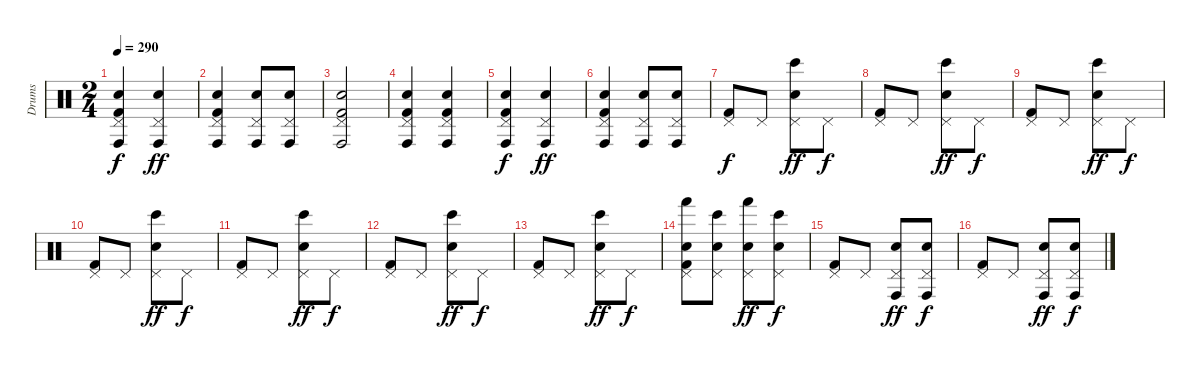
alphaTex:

\track ("Drums" "Drums") {instrument percussion}
\staff {score}
\articulation defaults
\ts (2 4)
\tempo 290
\clef neutral
\ks c
("Pedal Hi-Hat (hit)" "Conga high (hit)" "Electric Snare (hit)" "Kick (hit) 2").4{dy f} ("Pedal Hi-Hat (hit)" "Conga high (hit)" "Electric Snare (hit)").4{dy ff} |
("Pedal Hi-Hat (hit)" "Conga high (hit)" "Electric Snare (hit)" "Kick (hit) 2").4 ("Pedal Hi-Hat (hit)" "Conga high (hit)" "Electric Snare (hit)").8 ("Pedal Hi-Hat (hit)" "Conga high (hit)" "Electric Snare (hit)").8 |
("Pedal Hi-Hat (hit)" "Conga high (hit)" "Electric Snare (hit)" "Kick (hit) 2").2 |
("Pedal Hi-Hat (hit)" "Conga high (hit)" "Electric Snare (hit)" "Kick (hit) 2").4 ("Pedal Hi-Hat (hit)" "Conga high (hit)" "Electric Snare (hit)" "Kick (hit) 2").4 |
("Pedal Hi-Hat (hit)" "Conga high (hit)" "Electric Snare (hit)" "Kick (hit) 2").4{dy f} ("Pedal Hi-Hat (hit)" "Conga high (hit)" "Electric Snare (hit)").4{dy ff} |
("Pedal Hi-Hat (hit)" "Conga high (hit)" "Electric Snare (hit)" "Kick (hit) 2").4 ("Pedal Hi-Hat (hit)" "Conga high (hit)" "Electric Snare (hit)").8 ("Pedal Hi-Hat (hit)" "Conga high (hit)" "Electric Snare (hit)").8 |
("Pedal Hi-Hat (hit)" "Kick (hit) 2").8{dy f} "Pedal Hi-Hat (hit)".8 ("Pedal Hi-Hat (hit)" "Bongo High (hit)" "Electric Snare (hit)").8{dy ff} "Pedal Hi-Hat (hit)".8{dy f} |
("Pedal Hi-Hat (hit)" "Kick (hit) 2").8 "Pedal Hi-Hat (hit)".8 ("Pedal Hi-Hat (hit)" "Bongo High (hit)" "Electric Snare (hit)").8{dy ff} "Pedal Hi-Hat (hit)".8{dy f} |
("Pedal Hi-Hat (hit)" "Kick (hit) 2").8 "Pedal Hi-Hat (hit)".8 ("Pedal Hi-Hat (hit)" "Bongo High (hit)" "Electric Snare (hit)").8{dy ff} "Pedal Hi-Hat (hit)".8{dy f} |
("Pedal Hi-Hat (hit)" "Kick (hit) 2").8 "Pedal Hi-Hat (hit)".8 ("Pedal Hi-Hat (hit)" "Bongo High (hit)" "Electric Snare (hit)").8{dy ff} "Pedal Hi-Hat (hit)".8{dy f} |
("Pedal Hi-Hat (hit)" "Kick (hit) 2").8 "Pedal Hi-Hat (hit)".8 ("Pedal Hi-Hat (hit)" "Bongo High (hit)" "Electric Snare (hit)").8{dy ff} "Pedal Hi-Hat (hit)".8{dy f} |
("Pedal Hi-Hat (hit)" "Kick (hit) 2").8 "Pedal Hi-Hat (hit)".8 ("Pedal Hi-Hat (hit)" "Bongo High (hit)" "Electric Snare (hit)").8{dy ff} "Pedal Hi-Hat (hit)".8{dy f} |
("Pedal Hi-Hat (hit)" "Kick (hit) 2").8 "Pedal Hi-Hat (hit)".8 ("Pedal Hi-Hat (hit)" "Bongo High (hit)" "Electric Snare (hit)").8{dy ff} "Pedal Hi-Hat (hit)".8{dy f} |
("Pedal Hi-Hat (hit)" "Hand (hit)" "Electric Snare (hit)" "Kick (hit) 2").8 ("Pedal Hi-Hat (hit)" "Bongo High (hit)" "Electric Snare (hit)").8 ("Pedal Hi-Hat (hit)" "Hand (hit)" "Electric Snare (hit)").8{dy ff} ("Pedal Hi-Hat (hit)" "Bongo High (hit)" "Electric Snare (hit)").8{dy f} |
("Pedal Hi-Hat (hit)" "Kick (hit) 2").8 "Pedal Hi-Hat (hit)".8 ("Pedal Hi-Hat (hit)" "Conga high (hit)" "Electric Snare (hit)").8{dy ff} ("Pedal Hi-Hat (hit)" "Conga high (hit)" "Electric Snare (hit)").8{dy f} |
("Pedal Hi-Hat (hit)" "Kick (hit) 2").8 "Pedal Hi-Hat (hit)".8 ("Pedal Hi-Hat (hit)" "Conga high (hit)" "Electric Snare (hit)").8{dy ff} ("Pedal Hi-Hat (hit)" "Conga high (hit)" "Electric Snare (hit)").8{dy f}
